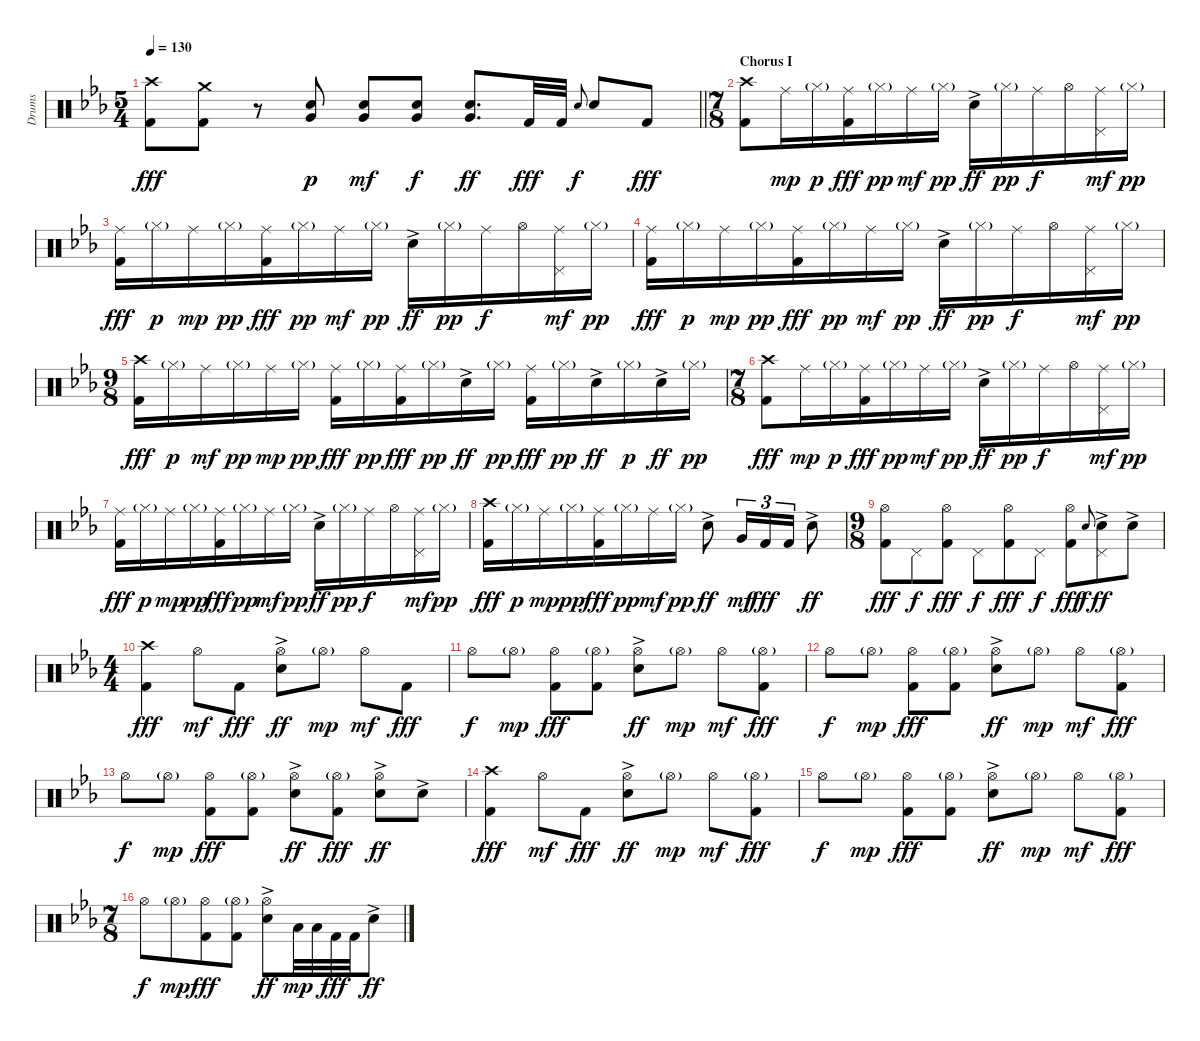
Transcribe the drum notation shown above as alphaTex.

\track ("Drums" "Drums") {instrument percussion}
\staff {score}
\articulation defaults
\ts (5 4)
\tempo 130
\clef neutral
\barLineRight lightlight
\ks cminor
("Crash high (hit)" "Kick (hit) 2").8{dy fff} ("Crash medium (hit)" "Kick (hit) 2").8 r.8 ("Very Low Tom (hit)" "Electric Snare (hit)").8{dy p} ("Very Low Tom (hit)" "Electric Snare (hit)").8{dy mf} ("Very Low Tom (hit)" "Electric Snare (hit)").8{dy f} ("Very Low Tom (hit)" "Electric Snare (hit)").8{d dy ff} "Kick (hit) 2".32{dy fff} "Kick (hit) 2".32 "Electric Snare (hit)".8{gr onbeat dy f} "Electric Snare (hit)".8 "Kick (hit) 2".8{dy fff} |
\ts (7 8)
\section ("" "Chorus I")
("Crash high (hit)" "Kick (hit) 2").8 "Ride (middle)".16{dy mp} "Hi-Hat (closed)"{g}.16{dy p} ("Ride (middle)" "Kick (hit) 2").16{dy fff} "Hi-Hat (closed)"{g}.16{dy pp} "Ride (middle)".16{dy mf} "Hi-Hat (closed)"{g}.16{dy pp} "Electric Snare (hit)"{ac}.16{dy ff} "Hi-Hat (closed)"{g}.16{dy pp} "Ride (middle)".16{dy f} "Hi-Hat (open)".16 ("Ride (middle)" "Pedal Hi-Hat (hit)").16{dy mf} "Hi-Hat (closed)"{g}.16{dy pp} |
("Ride (middle)" "Kick (hit) 2").16{dy fff} "Hi-Hat (closed)"{g}.16{dy p} "Ride (middle)".16{dy mp} "Hi-Hat (closed)"{g}.16{dy pp} ("Ride (middle)" "Kick (hit) 2").16{dy fff} "Hi-Hat (closed)"{g}.16{dy pp} "Ride (middle)".16{dy mf} "Hi-Hat (closed)"{g}.16{dy pp} "Electric Snare (hit)"{ac}.16{dy ff} "Hi-Hat (closed)"{g}.16{dy pp} "Ride (middle)".16{dy f} "Hi-Hat (open)".16 ("Ride (middle)" "Pedal Hi-Hat (hit)").16{dy mf} "Hi-Hat (closed)"{g}.16{dy pp} |
("Ride (middle)" "Kick (hit) 2").16{dy fff} "Hi-Hat (closed)"{g}.16{dy p} "Ride (middle)".16{dy mp} "Hi-Hat (closed)"{g}.16{dy pp} ("Ride (middle)" "Kick (hit) 2").16{dy fff} "Hi-Hat (closed)"{g}.16{dy pp} "Ride (middle)".16{dy mf} "Hi-Hat (closed)"{g}.16{dy pp} "Electric Snare (hit)"{ac}.16{dy ff} "Hi-Hat (closed)"{g}.16{dy pp} "Ride (middle)".16{dy f} "Hi-Hat (open)".16 ("Ride (middle)" "Pedal Hi-Hat (hit)").16{dy mf} "Hi-Hat (closed)"{g}.16{dy pp} |
\ts (9 8)
("Crash high (hit)" "Kick (hit) 2").16{dy fff} "Hi-Hat (closed)"{g}.16{dy p} "Ride (middle)".16{dy mf} "Hi-Hat (closed)"{g}.16{dy pp} "Ride (middle)".16{dy mp} "Hi-Hat (closed)"{g}.16{dy pp} ("Ride (middle)" "Kick (hit) 2").16{dy fff} "Hi-Hat (closed)"{g}.16{dy pp} ("Ride (middle)" "Kick (hit) 2").16{dy fff} "Hi-Hat (closed)"{g}.16{dy pp} "Electric Snare (hit)"{ac}.16{dy ff} "Hi-Hat (closed)"{g}.16{dy pp} ("Ride (middle)" "Kick (hit) 2").16{dy fff} "Hi-Hat (closed)"{g}.16{dy pp} "Electric Snare (hit)"{ac}.16{dy ff} "Hi-Hat (closed)"{g}.16{dy p} "Electric Snare (hit)"{ac}.16{dy ff} "Hi-Hat (closed)"{g}.16{dy pp} |
\ts (7 8)
("Crash high (hit)" "Kick (hit) 2").8{dy fff} "Ride (middle)".16{dy mp} "Hi-Hat (closed)"{g}.16{dy p} ("Ride (middle)" "Kick (hit) 2").16{dy fff} "Hi-Hat (closed)"{g}.16{dy pp} "Ride (middle)".16{dy mf} "Hi-Hat (closed)"{g}.16{dy pp} "Electric Snare (hit)"{ac}.16{dy ff} "Hi-Hat (closed)"{g}.16{dy pp} "Ride (middle)".16{dy f} "Hi-Hat (open)".16 ("Ride (middle)" "Pedal Hi-Hat (hit)").16{dy mf} "Hi-Hat (closed)"{g}.16{dy pp} |
("Ride (middle)" "Kick (hit) 2").16{dy fff} "Hi-Hat (closed)"{g}.16{dy p} "Ride (middle)".16{dy mp} "Hi-Hat (closed)"{g}.16{dy pp} ("Ride (middle)" "Kick (hit) 2").16{dy fff} "Hi-Hat (closed)"{g}.16{dy pp} "Ride (middle)".16{dy mf} "Hi-Hat (closed)"{g}.16{dy pp} "Electric Snare (hit)"{ac}.16{dy ff} "Hi-Hat (closed)"{g}.16{dy pp} "Ride (middle)".16{dy f} "Hi-Hat (open)".16 ("Ride (middle)" "Pedal Hi-Hat (hit)").16{dy mf} "Hi-Hat (closed)"{g}.16{dy pp} |
("Crash high (hit)" "Kick (hit) 2").16{dy fff} "Hi-Hat (closed)"{g}.16{dy p} "Ride (middle)".16{dy mp} "Hi-Hat (closed)"{g}.16{dy pp} ("Ride (middle)" "Kick (hit) 2").16{dy fff} "Hi-Hat (closed)"{g}.16{dy pp} "Ride (middle)".16{dy mf} "Hi-Hat (closed)"{g}.16{dy pp} "Electric Snare (hit)"{ac}.8{dy ff} "Very Low Tom (hit)".16{tu (3 2) dy mf} "Kick (hit) 2".16{tu (3 2) dy fff} "Kick (hit) 2".16{tu (3 2)} "Electric Snare (hit)"{ac}.8{dy ff} |
\ts (9 8)
("Hi-Hat (open)" "Kick (hit) 2").8{dy fff} "Pedal Hi-Hat (hit)".8{dy f} ("Hi-Hat (open)" "Kick (hit) 2").8{dy fff} "Pedal Hi-Hat (hit)".8{dy f} ("Hi-Hat (open)" "Kick (hit) 2").8{dy fff} "Pedal Hi-Hat (hit)".8{dy f} ("Hi-Hat (open)" "Kick (hit) 2").8{dy fff} "Electric Snare (hit)".8{gr onbeat dy f} ("Pedal Hi-Hat (hit)" "Electric Snare (hit)"{ac}).8{dy ff} "Electric Snare (hit)"{ac}.8 |
\ts (4 4)
("Crash high (hit)" "Kick (hit) 2").4{dy fff} "Hi-Hat (open)".8{dy mf} "Kick (hit) 2".8{dy fff} ("Hi-Hat (open)" "Electric Snare (hit)"{ac}).8{dy ff} "Hi-Hat (open)"{g}.8{dy mp} "Hi-Hat (open)".8{dy mf} "Kick (hit) 2".8{dy fff} |
"Hi-Hat (open)".8{dy f} "Hi-Hat (open)"{g}.8{dy mp} ("Hi-Hat (open)" "Kick (hit) 2").8{dy fff} ("Hi-Hat (open)"{g} "Kick (hit) 2").8 ("Hi-Hat (open)" "Electric Snare (hit)"{ac}).8{dy ff} "Hi-Hat (open)"{g}.8{dy mp} "Hi-Hat (open)".8{dy mf} ("Hi-Hat (open)"{g} "Kick (hit) 2").8{dy fff} |
"Hi-Hat (open)".8{dy f} "Hi-Hat (open)"{g}.8{dy mp} ("Hi-Hat (open)" "Kick (hit) 2").8{dy fff} ("Hi-Hat (open)"{g} "Kick (hit) 2").8 ("Hi-Hat (open)" "Electric Snare (hit)"{ac}).8{dy ff} "Hi-Hat (open)"{g}.8{dy mp} "Hi-Hat (open)".8{dy mf} ("Hi-Hat (open)"{g} "Kick (hit) 2").8{dy fff} |
"Hi-Hat (open)".8{dy f} "Hi-Hat (open)"{g}.8{dy mp} ("Hi-Hat (open)" "Kick (hit) 2").8{dy fff} ("Hi-Hat (open)"{g} "Kick (hit) 2").8 ("Hi-Hat (open)" "Electric Snare (hit)"{ac}).8{dy ff} ("Hi-Hat (open)"{g} "Kick (hit) 2").8{dy fff} ("Hi-Hat (open)" "Electric Snare (hit)"{ac}).8{dy ff} "Electric Snare (hit)"{ac}.8 |
("Crash high (hit)" "Kick (hit) 2").4{dy fff} "Hi-Hat (open)".8{dy mf} "Kick (hit) 2".8{dy fff} ("Hi-Hat (open)" "Electric Snare (hit)"{ac}).8{dy ff} "Hi-Hat (open)"{g}.8{dy mp} "Hi-Hat (open)".8{dy mf} ("Hi-Hat (open)"{g} "Kick (hit) 2").8{dy fff} |
"Hi-Hat (open)".8{dy f} "Hi-Hat (open)"{g}.8{dy mp} ("Hi-Hat (open)" "Kick (hit) 2").8{dy fff} ("Hi-Hat (open)"{g} "Kick (hit) 2").8 ("Hi-Hat (open)" "Electric Snare (hit)"{ac}).8{dy ff} "Hi-Hat (open)"{g}.8{dy mp} "Hi-Hat (open)".8{dy mf} ("Hi-Hat (open)"{g} "Kick (hit) 2").8{dy fff} |
\ts (7 8)
"Hi-Hat (open)".8{dy f} "Hi-Hat (open)"{g}.8{dy mp} ("Hi-Hat (open)" "Kick (hit) 2").8{dy fff} ("Hi-Hat (open)"{g} "Kick (hit) 2").8 ("Hi-Hat (open)" "Electric Snare (hit)"{ac}).8{dy ff} "Low Tom (hit)".32{dy mp} "Low Tom (hit)".32 "Kick (hit) 2".32{dy fff} "Kick (hit) 2".32 "Electric Snare (hit)"{ac}.8{dy ff}
